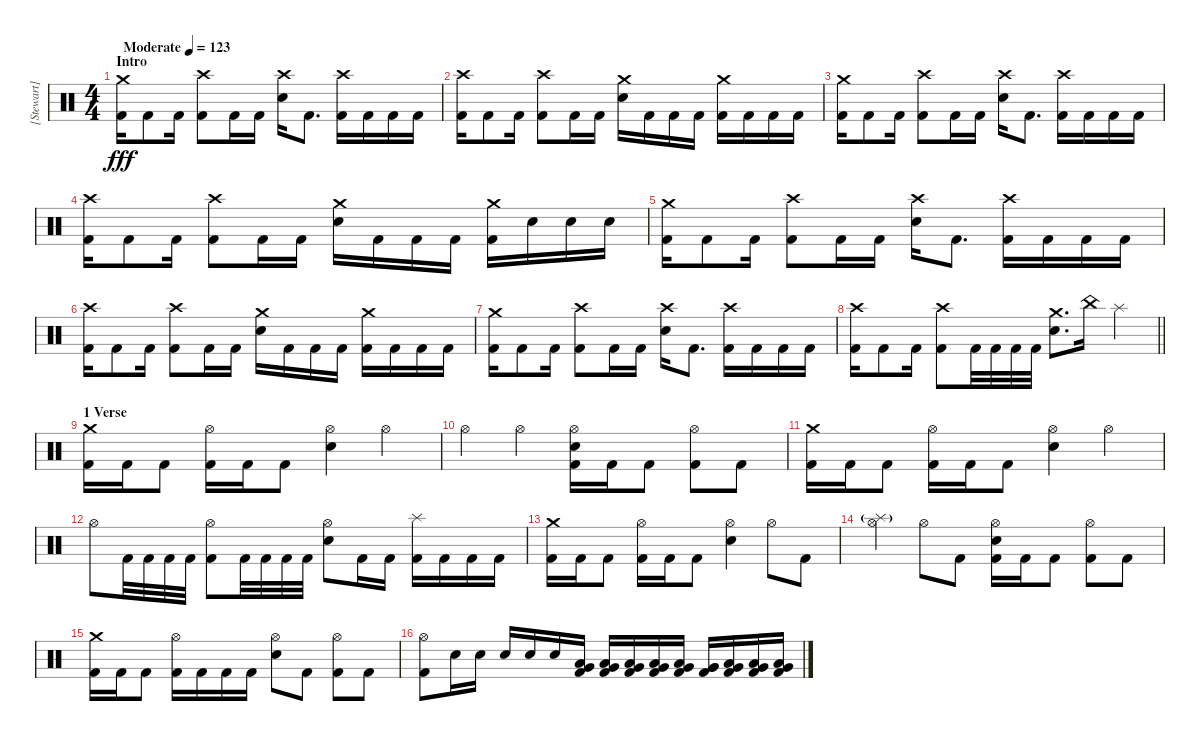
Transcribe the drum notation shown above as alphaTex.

\track ("[Stewart] Drums" "[Stewart] ") {instrument percussion}
\staff {score}
\articulation defaults
\ts (4 4)
\section ("" "Intro ")
\tempo (123 "Moderate")
\clef neutral
\ks c
("Crash medium (hit)" "Kick (hit) 2").16{dy fff} "Kick (hit) 2".8 "Kick (hit) 2".16 ("Crash high (hit)" "Kick (hit) 2").8 "Kick (hit) 2".16 "Kick (hit) 2".16 ("Crash high (hit)" "Electric Snare (hit)").16 "Kick (hit) 2".8{d} ("Crash high (hit)" "Kick (hit) 2").16 "Kick (hit) 2".16 "Kick (hit) 2".16 "Kick (hit) 2".16 |
("Crash high (hit)" "Kick (hit) 2").16 "Kick (hit) 2".8 "Kick (hit) 2".16 ("Crash high (hit)" "Kick (hit) 2").8 "Kick (hit) 2".16 "Kick (hit) 2".16 ("Crash medium (hit)" "Electric Snare (hit)").16 "Kick (hit) 2".16 "Kick (hit) 2".16 "Kick (hit) 2".16 ("Crash medium (hit)" "Kick (hit) 2").16 "Kick (hit) 2".16 "Kick (hit) 2".16 "Kick (hit) 2".16 |
("Crash medium (hit)" "Kick (hit) 2").16 "Kick (hit) 2".8 "Kick (hit) 2".16 ("Crash high (hit)" "Kick (hit) 2").8 "Kick (hit) 2".16 "Kick (hit) 2".16 ("Crash high (hit)" "Electric Snare (hit)").16 "Kick (hit) 2".8{d} ("Crash high (hit)" "Kick (hit) 2").16 "Kick (hit) 2".16 "Kick (hit) 2".16 "Kick (hit) 2".16 |
("Crash high (hit)" "Kick (hit) 2").16 "Kick (hit) 2".8 "Kick (hit) 2".16 ("Crash high (hit)" "Kick (hit) 2").8 "Kick (hit) 2".16 "Kick (hit) 2".16 ("Crash medium (hit)" "Electric Snare (hit)").16 "Kick (hit) 2".16 "Kick (hit) 2".16 "Kick (hit) 2".16 ("Crash medium (hit)" "Kick (hit) 2").16 "Electric Snare (hit)".16 "Electric Snare (hit)".16 "Electric Snare (hit)".16 |
("Crash medium (hit)" "Kick (hit) 2").16 "Kick (hit) 2".8 "Kick (hit) 2".16 ("Crash high (hit)" "Kick (hit) 2").8 "Kick (hit) 2".16 "Kick (hit) 2".16 ("Crash high (hit)" "Electric Snare (hit)").16 "Kick (hit) 2".8{d} ("Crash high (hit)" "Kick (hit) 2").16 "Kick (hit) 2".16 "Kick (hit) 2".16 "Kick (hit) 2".16 |
("Crash high (hit)" "Kick (hit) 2").16 "Kick (hit) 2".8 "Kick (hit) 2".16 ("Crash high (hit)" "Kick (hit) 2").8 "Kick (hit) 2".16 "Kick (hit) 2".16 ("Crash medium (hit)" "Electric Snare (hit)").16 "Kick (hit) 2".16 "Kick (hit) 2".16 "Kick (hit) 2".16 ("Crash medium (hit)" "Kick (hit) 2").16 "Kick (hit) 2".16 "Kick (hit) 2".16 "Kick (hit) 2".16 |
("Crash medium (hit)" "Kick (hit) 2").16 "Kick (hit) 2".8 "Kick (hit) 2".16 ("Crash high (hit)" "Kick (hit) 2").8 "Kick (hit) 2".16 "Kick (hit) 2".16 ("Crash high (hit)" "Electric Snare (hit)").16 "Kick (hit) 2".8{d} ("Crash high (hit)" "Kick (hit) 2").16 "Kick (hit) 2".16 "Kick (hit) 2".16 "Kick (hit) 2".16 |
\barLineRight lightlight
("Crash high (hit)" "Kick (hit) 2").16 "Kick (hit) 2".8 "Kick (hit) 2".16 ("Crash high (hit)" "Kick (hit) 2").8 "Kick (hit) 2".32 "Kick (hit) 2".32 "Kick (hit) 2".32 "Kick (hit) 2".32 ("Crash medium (hit)" "Electric Snare (hit)").8{d} "China (hit)".16 "Splash (hit)".4 |
\section ("" "1 Verse ")
("Crash medium (hit)" "Kick (hit) 2").16 "Kick (hit) 2".16 "Kick (hit) 2".8 ("Hi-Hat (open)" "Kick (hit) 2").16 "Kick (hit) 2".16 "Kick (hit) 2".8 ("Hi-Hat (open)" "Electric Snare (hit)").4 "Hi-Hat (open)".4 |
"Hi-Hat (open)".4 "Hi-Hat (open)".4 ("Hi-Hat (open)" "Electric Snare (hit)" "Kick (hit) 2").16 "Kick (hit) 2".16 "Kick (hit) 2".8 ("Hi-Hat (open)" "Kick (hit) 2").8 "Kick (hit) 2".8 |
("Crash medium (hit)" "Kick (hit) 2").16 "Kick (hit) 2".16 "Kick (hit) 2".8 ("Hi-Hat (open)" "Kick (hit) 2").16 "Kick (hit) 2".16 "Kick (hit) 2".8 ("Hi-Hat (open)" "Electric Snare (hit)").4 "Hi-Hat (open)".4 |
"Hi-Hat (open)".8 "Kick (hit) 2".32 "Kick (hit) 2".32 "Kick (hit) 2".32 "Kick (hit) 2".32 ("Hi-Hat (open)" "Kick (hit) 2").8 "Kick (hit) 2".32 "Kick (hit) 2".32 "Kick (hit) 2".32 "Kick (hit) 2".32 ("Hi-Hat (open)" "Electric Snare (hit)").8 "Kick (hit) 2".16 "Kick (hit) 2".16 ("Splash (hit)" "Kick (hit) 2").16 "Kick (hit) 2".16 "Kick (hit) 2".16 "Kick (hit) 2".16 |
("Crash medium (hit)" "Kick (hit) 2").16 "Kick (hit) 2".16 "Kick (hit) 2".8 ("Hi-Hat (open)" "Kick (hit) 2").16 "Kick (hit) 2".16 "Kick (hit) 2".8 ("Hi-Hat (open)" "Electric Snare (hit)").4 "Hi-Hat (open)".8 "Kick (hit) 2".8 |
("Hi-Hat (open)" "Splash (hit)"{g}).4 "Hi-Hat (open)".8 "Kick (hit) 2".8 ("Hi-Hat (open)" "Electric Snare (hit)" "Kick (hit) 2").16 "Kick (hit) 2".16 "Kick (hit) 2".8 ("Hi-Hat (open)" "Kick (hit) 2").8 "Kick (hit) 2".8 |
("Crash medium (hit)" "Kick (hit) 2").16 "Kick (hit) 2".16 "Kick (hit) 2".8 ("Hi-Hat (open)" "Kick (hit) 2").16 "Kick (hit) 2".16 "Kick (hit) 2".16 "Kick (hit) 2".16 ("Hi-Hat (open)" "Electric Snare (hit)").8 "Kick (hit) 2".8 ("Hi-Hat (open)" "Kick (hit) 2").8 "Kick (hit) 2".8 |
("Hi-Hat (open)" "Kick (hit) 2").8 "Electric Snare (hit)".16 "Electric Snare (hit)".16 "Electric Snare (hit)".16 "Electric Snare (hit)".16 "Electric Snare (hit)".16 ("Very Low Tom (hit)" "Low Tom (hit)" "Kick (hit) 2").16 ("Very Low Tom (hit)" "Low Tom (hit)" "Kick (hit) 2").16 ("Very Low Tom (hit)" "Low Tom (hit)" "Kick (hit) 2").16 ("Very Low Tom (hit)" "Low Tom (hit)" "Kick (hit) 2").16 ("Very Low Tom (hit)" "Low Tom (hit)" "Kick (hit) 2").16 ("Very Low Tom (hit)" "Very Low Tom (hit)" "Kick (hit) 2").16 ("Low Floor Tom (hit)" "Very Low Tom (hit)" "Kick (hit) 2").16 ("Low Floor Tom (hit)" "Very Low Tom (hit)" "Kick (hit) 2").16 ("Low Floor Tom (hit)" "Very Low Tom (hit)" "Kick (hit) 2").16
